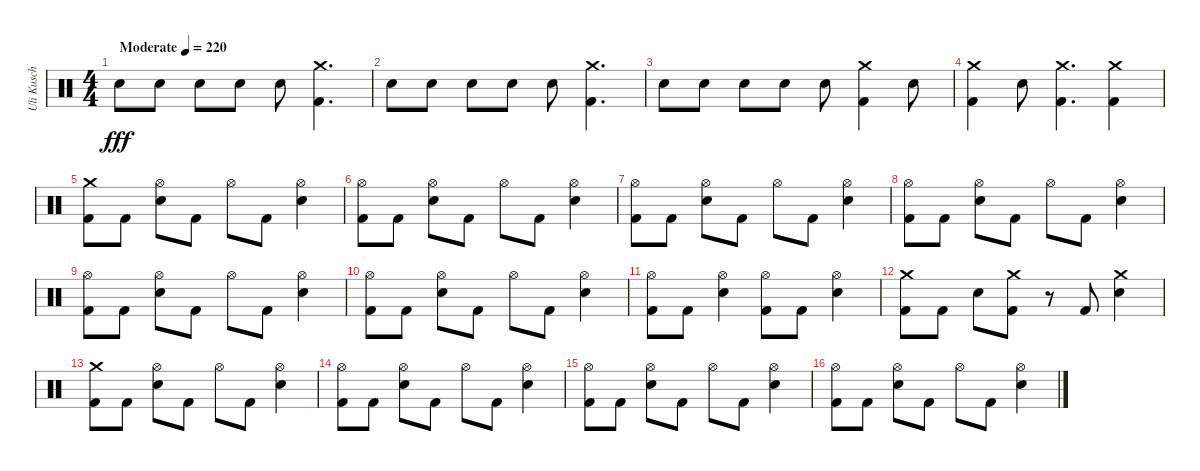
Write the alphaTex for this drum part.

\track ("Uli Kusch" "Uli Kusch") {instrument percussion}
\staff {score}
\articulation defaults
\ts (4 4)
\tempo (220 "Moderate")
\clef neutral
\ks c "Snare (hit) 2".8{dy fff} "Snare (hit) 2".8 "Snare (hit) 2".8 "Snare (hit) 2".8 "Snare (hit) 2".8
("Crash medium (hit)" "Kick (hit) 2").4{d} |
"Snare (hit) 2".8 "Snare (hit) 2".8 "Snare (hit) 2".8 "Snare (hit) 2".8 "Snare (hit) 2".8 ("Crash medium (hit)" "Kick (hit) 2").4{d} |
"Snare (hit) 2".8 "Snare (hit) 2".8 "Snare (hit) 2".8 "Snare (hit) 2".8 "Snare (hit) 2".8 ("Crash medium (hit)" "Kick (hit) 2").4 "Snare (hit) 2".8 |
("Crash medium (hit)" "Kick (hit) 2").4 "Snare (hit) 2".8 ("Crash medium (hit)" "Kick (hit) 2").4{d} ("Crash medium (hit)" "Kick (hit) 2").4 |
("Crash medium (hit)" "Kick (hit) 2").8 "Kick (hit) 2".8 ("Hi-Hat (open)" "Snare (hit) 2").8 "Kick (hit) 2".8 "Hi-Hat (open)".8 "Kick (hit) 2".8 ("Hi-Hat (open)" "Snare (hit) 2").4 |
("Hi-Hat (open)" "Kick (hit) 2").8 "Kick (hit) 2".8 ("Hi-Hat (open)" "Snare (hit) 2").8 "Kick (hit) 2".8 "Hi-Hat (open)".8 "Kick (hit) 2".8 ("Hi-Hat (open)" "Snare (hit) 2").4 |
("Hi-Hat (open)" "Kick (hit) 2").8 "Kick (hit) 2".8 ("Hi-Hat (open)" "Snare (hit) 2").8 "Kick (hit) 2".8 "Hi-Hat (open)".8 "Kick (hit) 2".8 ("Hi-Hat (open)" "Snare (hit) 2").4 |
("Hi-Hat (open)" "Kick (hit) 2").8 "Kick (hit) 2".8 ("Hi-Hat (open)" "Snare (hit) 2").8 "Kick (hit) 2".8 "Hi-Hat (open)".8 "Kick (hit) 2".8 ("Hi-Hat (open)" "Snare (hit) 2").4 |
("Hi-Hat (open)" "Kick (hit) 2").8 "Kick (hit) 2".8 ("Hi-Hat (open)" "Snare (hit) 2").8 "Kick (hit) 2".8 "Hi-Hat (open)".8 "Kick (hit) 2".8 ("Hi-Hat (open)" "Snare (hit) 2").4 |
("Hi-Hat (open)" "Kick (hit) 2").8 "Kick (hit) 2".8 ("Hi-Hat (open)" "Snare (hit) 2").8 "Kick (hit) 2".8 "Hi-Hat (open)".8 "Kick (hit) 2".8 ("Hi-Hat (open)" "Snare (hit) 2").4 |
("Hi-Hat (open)" "Kick (hit) 2").8 "Kick (hit) 2".8 ("Hi-Hat (open)" "Snare (hit) 2").4 ("Hi-Hat (open)" "Kick (hit) 2").8 "Kick (hit) 2".8 ("Hi-Hat (open)" "Snare (hit) 2").4 |
("Crash medium (hit)" "Kick (hit) 2").8 "Kick (hit) 2".8 "Snare (hit) 2".8 ("Crash medium (hit)" "Kick (hit) 2").8 r.8 "Kick (hit) 2".8 ("Crash medium (hit)" "Snare (hit) 2").4 |
("Crash medium (hit)" "Kick (hit) 2").8 "Kick (hit) 2".8 ("Hi-Hat (open)" "Snare (hit) 2").8 "Kick (hit) 2".8 "Hi-Hat (open)".8 "Kick (hit) 2".8 ("Hi-Hat (open)" "Snare (hit) 2").4 |
("Hi-Hat (open)" "Kick (hit) 2").8 "Kick (hit) 2".8 ("Hi-Hat (open)" "Snare (hit) 2").8 "Kick (hit) 2".8 "Hi-Hat (open)".8 "Kick (hit) 2".8 ("Hi-Hat (open)" "Snare (hit) 2").4 |
("Hi-Hat (open)" "Kick (hit) 2").8 "Kick (hit) 2".8 ("Hi-Hat (open)" "Snare (hit) 2").8 "Kick (hit) 2".8 "Hi-Hat (open)".8 "Kick (hit) 2".8 ("Hi-Hat (open)" "Snare (hit) 2").4 |
("Hi-Hat (open)" "Kick (hit) 2").8 "Kick (hit) 2".8 ("Hi-Hat (open)" "Snare (hit) 2").8 "Kick (hit) 2".8 "Hi-Hat (open)".8 "Kick (hit) 2".8 ("Hi-Hat (open)" "Snare (hit) 2").4
